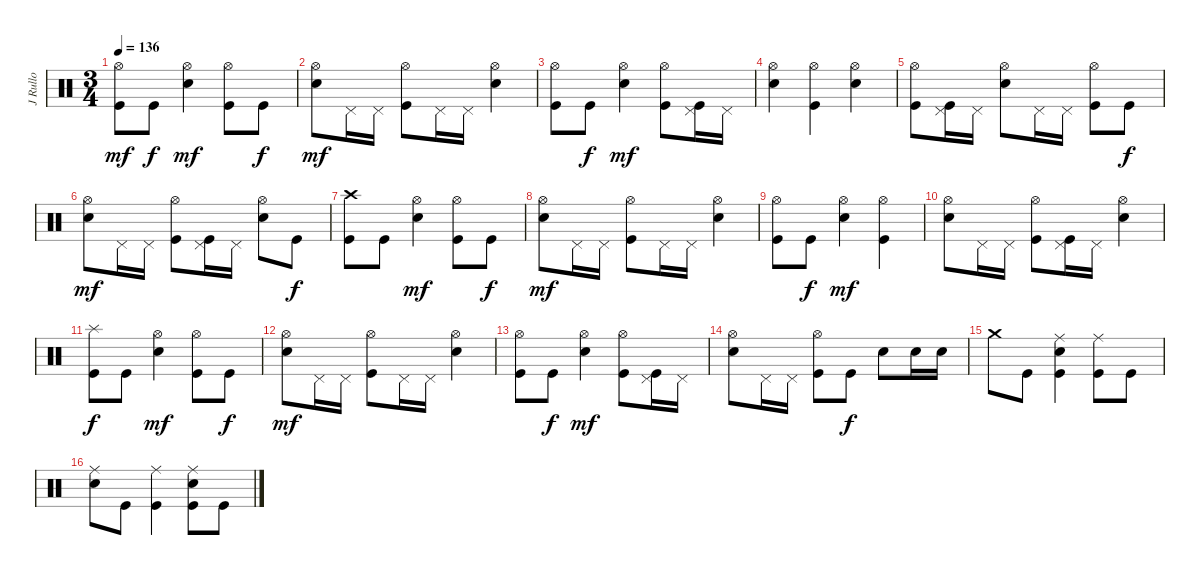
\track ("J Rullo" "J Rullo") {instrument percussion}
\staff {score}
\articulation defaults
\ts (3 4)
\tempo 136
\clef neutral
\ks c
("Hi-Hat (open)" "Kick (hit)").8{dy mf} "Kick (hit)".8{dy f} ("Hi-Hat (open)" "Electric Snare (hit)").4{dy mf} ("Hi-Hat (open)" "Kick (hit)").8 "Kick (hit)".8{dy f} |
("Hi-Hat (open)" "Electric Snare (hit)").8{dy mf} "Pedal Hi-Hat (hit)".16 "Pedal Hi-Hat (hit)".16 ("Hi-Hat (open)" "Kick (hit)").8 "Pedal Hi-Hat (hit)".16 "Pedal Hi-Hat (hit)".16 ("Hi-Hat (open)" "Electric Snare (hit)").4 |
("Hi-Hat (open)" "Kick (hit)").8 "Kick (hit)".8{dy f} ("Hi-Hat (open)" "Electric Snare (hit)").4{dy mf} ("Hi-Hat (open)" "Kick (hit)").8 ("Pedal Hi-Hat (hit)" "Kick (hit)").16 "Pedal Hi-Hat (hit)".16 |
("Hi-Hat (open)" "Electric Snare (hit)").4 ("Hi-Hat (open)" "Kick (hit)").4 ("Hi-Hat (open)" "Electric Snare (hit)").4 |
("Hi-Hat (open)" "Kick (hit)").8 ("Pedal Hi-Hat (hit)" "Kick (hit)").16 "Pedal Hi-Hat (hit)".16 ("Hi-Hat (open)" "Electric Snare (hit)").8 "Pedal Hi-Hat (hit)".16 "Pedal Hi-Hat (hit)".16 ("Hi-Hat (open)" "Kick (hit)").8 "Kick (hit)".8{dy f} |
("Hi-Hat (open)" "Electric Snare (hit)").8{dy mf} "Pedal Hi-Hat (hit)".16 "Pedal Hi-Hat (hit)".16 ("Hi-Hat (open)" "Kick (hit)").8 ("Pedal Hi-Hat (hit)" "Kick (hit)").16 "Pedal Hi-Hat (hit)".16 ("Hi-Hat (open)" "Electric Snare (hit)").8 "Kick (hit)".8{dy f} |
("Crash high (hit)" "Kick (hit)").8 "Kick (hit)".8 ("Hi-Hat (open)" "Electric Snare (hit)").4{dy mf} ("Hi-Hat (open)" "Kick (hit)").8 "Kick (hit)".8{dy f} |
("Hi-Hat (open)" "Electric Snare (hit)").8{dy mf} "Pedal Hi-Hat (hit)".16 "Pedal Hi-Hat (hit)".16 ("Hi-Hat (open)" "Kick (hit)").8 "Pedal Hi-Hat (hit)".16 "Pedal Hi-Hat (hit)".16 ("Hi-Hat (open)" "Electric Snare (hit)").4 |
("Hi-Hat (open)" "Kick (hit)").8 "Kick (hit)".8{dy f} ("Hi-Hat (open)" "Electric Snare (hit)").4{dy mf} ("Hi-Hat (open)" "Kick (hit)").4 |
("Hi-Hat (open)" "Electric Snare (hit)").8 "Pedal Hi-Hat (hit)".16 "Pedal Hi-Hat (hit)".16 ("Hi-Hat (open)" "Kick (hit)").8 ("Pedal Hi-Hat (hit)" "Kick (hit)").16 "Pedal Hi-Hat (hit)".16 ("Hi-Hat (open)" "Electric Snare (hit)").4 |
("Splash (hit)" "Kick (hit)").8{dy f} "Kick (hit)".8 ("Hi-Hat (open)" "Electric Snare (hit)").4{dy mf} ("Hi-Hat (open)" "Kick (hit)").8 "Kick (hit)".8{dy f} |
("Hi-Hat (open)" "Electric Snare (hit)").8{dy mf} "Pedal Hi-Hat (hit)".16 "Pedal Hi-Hat (hit)".16 ("Hi-Hat (open)" "Kick (hit)").8 "Pedal Hi-Hat (hit)".16 "Pedal Hi-Hat (hit)".16 ("Hi-Hat (open)" "Electric Snare (hit)").4 |
("Hi-Hat (open)" "Kick (hit)").8 "Kick (hit)".8{dy f} ("Hi-Hat (open)" "Electric Snare (hit)").4{dy mf} ("Hi-Hat (open)" "Kick (hit)").8 ("Pedal Hi-Hat (hit)" "Kick (hit)").16 "Pedal Hi-Hat (hit)".16 |
("Hi-Hat (open)" "Electric Snare (hit)").8 "Pedal Hi-Hat (hit)".16 "Pedal Hi-Hat (hit)".16 ("Hi-Hat (open)" "Kick (hit)").8 "Kick (hit)".8{dy f} "Electric Snare (hit)".8 "Electric Snare (hit)".16 "Electric Snare (hit)".16 |
"Crash medium (hit)".8 "Kick (hit)".8 ("Ride (middle)" "Electric Snare (hit)" "Kick (hit)").4 ("Ride (middle)" "Kick (hit)").8 "Kick (hit)".8 |
("Ride (middle)" "Electric Snare (hit)").8 "Kick (hit)".8 ("Ride (middle)" "Kick (hit)").4 ("Ride (middle)" "Electric Snare (hit)" "Kick (hit)").8 "Kick (hit)".8
